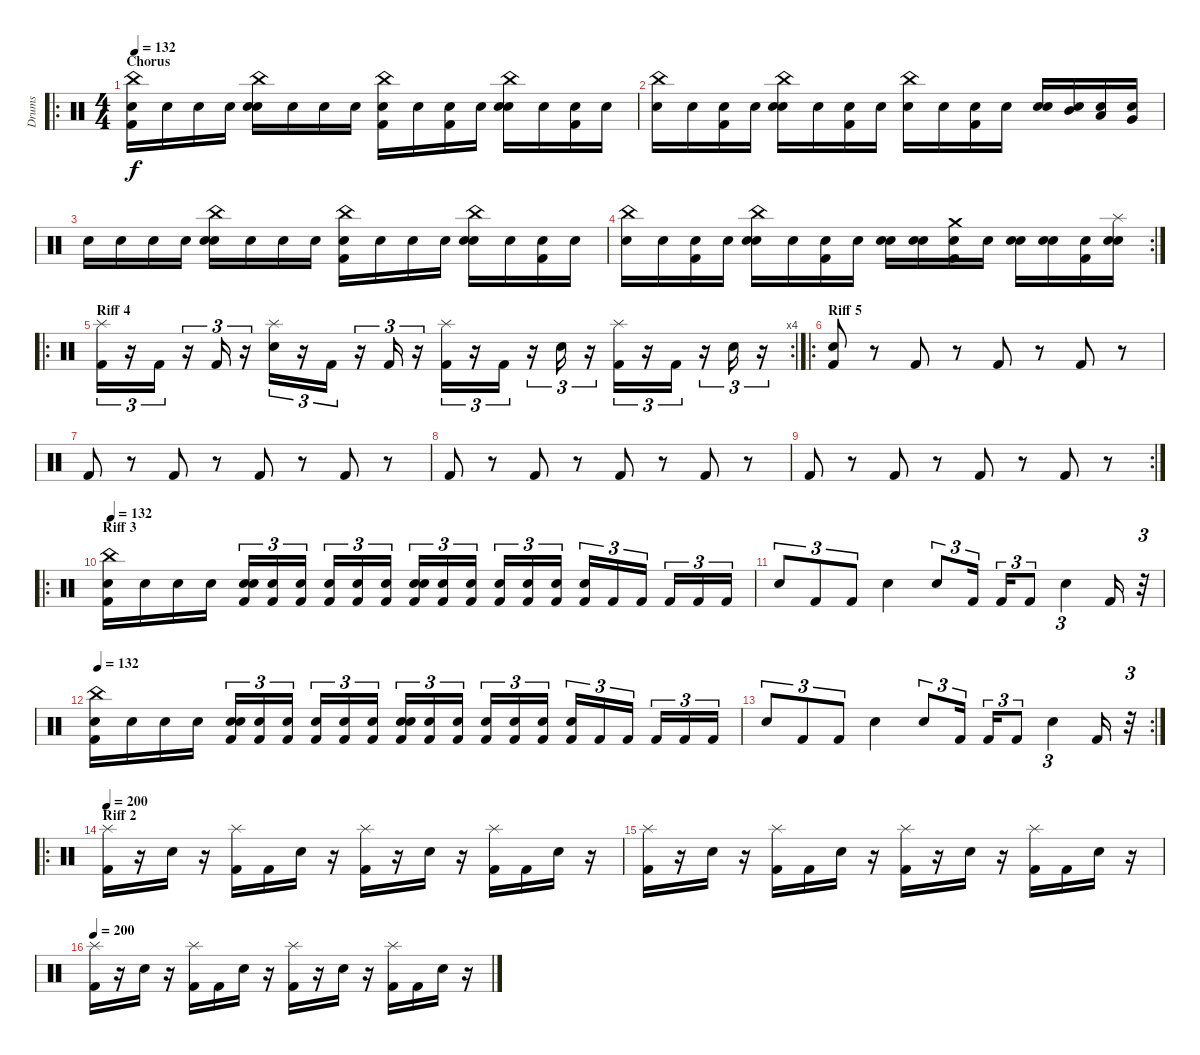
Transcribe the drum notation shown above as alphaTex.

\track ("Drums" "Drums") {instrument percussion}
\staff {score}
\articulation defaults
\ro
\ts (4 4)
\section ("" "Chorus")
\tempo 132
\clef neutral
\ks c
("Snare (hit)" "Kick (hit) 2" "China (hit)").16{dy f} "Snare (hit)".16 "Snare (hit)".16 "Snare (hit)".16 ("Snare (hit)" "Snare (hit) 2" "China (hit)").16 "Snare (hit)".16 "Snare (hit)".16 "Snare (hit)".16 ("Snare (hit)" "Kick (hit) 2" "China (hit)").16 "Snare (hit)".16 ("Snare (hit)" "Kick (hit) 2").16 "Snare (hit)".16 ("Snare (hit)" "Snare (hit) 2" "China (hit)").16 "Snare (hit)".16 ("Snare (hit)" "Kick (hit) 2").16 "Snare (hit)".16 |
("Snare (hit)" "China (hit)").16 "Snare (hit)".16 ("Snare (hit)" "Kick (hit) 2").16 "Snare (hit)".16 ("Snare (hit)" "Snare (hit) 2" "China (hit)").16 "Snare (hit)".16 ("Snare (hit)" "Kick (hit) 2").16 "Snare (hit)".16 ("Snare (hit)" "China (hit)").16 "Snare (hit)".16 ("Snare (hit)" "Kick (hit) 2").16 "Snare (hit)".16 ("Snare (hit)" "Snare (hit) 2").16 ("Snare (hit)" "Mid Tom (hit)").16 ("Snare (hit)" "Low Tom (hit)").16 ("Snare (hit)" "Very Low Tom (hit)").16 |
"Snare (hit)".16 "Snare (hit)".16 "Snare (hit)".16 "Snare (hit)".16 ("Snare (hit)" "Snare (hit) 2" "China (hit)").16 "Snare (hit)".16 "Snare (hit)".16 "Snare (hit)".16 ("Snare (hit)" "Kick (hit) 2" "China (hit)").16 "Snare (hit)".16 "Snare (hit)".16 "Snare (hit)".16 ("Snare (hit)" "Snare (hit) 2" "China (hit)").16 "Snare (hit)".16 ("Snare (hit)" "Kick (hit) 2").16 "Snare (hit)".16 |
\rc 2
("Snare (hit)" "China (hit)").16 "Snare (hit)".16 ("Snare (hit)" "Kick (hit) 2").16 "Snare (hit)".16 ("Snare (hit)" "Snare (hit) 2" "China (hit)").16 "Snare (hit)".16 ("Snare (hit)" "Kick (hit) 2").16 "Snare (hit)".16 ("Snare (hit)" "Snare (hit) 2").16 ("Snare (hit)" "Snare (hit) 2").16 ("Snare (hit)" "Kick (hit) 2" "Crash medium (hit)").16 "Snare (hit)".16 ("Snare (hit)" "Snare (hit) 2").16 ("Snare (hit)" "Snare (hit) 2").16 ("Snare (hit)" "Kick (hit) 2").16 ("Snare (hit)" "Snare (hit) 2" "Splash (hit)").16 |
\ro
\rc 4
\section ("" "Riff 4")
("Kick (hit) 2" "Splash (hit)").16{tu (3 2)} r.16{tu (3 2)} "Kick (hit) 2".16{tu (3 2)} r.16{tu (3 2)} "Kick (hit) 2".16{tu (3 2)} r.16{tu (3 2)} ("Snare (hit) 2" "Splash (hit)").16{tu (3 2)} r.16{tu (3 2)} "Kick (hit) 2".16{tu (3 2)} r.16{tu (3 2)} "Kick (hit) 2".16{tu (3 2)} r.16{tu (3 2)} ("Kick (hit) 2" "Splash (hit)").16{tu (3 2)} r.16{tu (3 2)} "Kick (hit) 2".16{tu (3 2)} r.16{tu (3 2)} "Snare (hit) 2".16{tu (3 2)} r.16{tu (3 2)} ("Kick (hit) 2" "Splash (hit)").16{tu (3 2)} r.16{tu (3 2)} "Kick (hit) 2".16{tu (3 2)} r.16{tu (3 2)} "Snare (hit) 2".16{tu (3 2)} r.16{tu (3 2)} |
\ro
\section ("" "Riff 5")
("Kick (hit) 2" "Snare (hit)").8 r.8 "Kick (hit) 2".8 r.8 "Kick (hit) 2".8 r.8 "Kick (hit) 2".8 r.8 |
"Kick (hit) 2".8 r.8 "Kick (hit) 2".8 r.8 "Kick (hit) 2".8 r.8 "Kick (hit) 2".8 r.8 |
"Kick (hit) 2".8 r.8 "Kick (hit) 2".8 r.8 "Kick (hit) 2".8 r.8 "Kick (hit) 2".8 r.8 |
\rc 2 "Kick (hit) 2".8
r.8 "Kick (hit) 2".8 r.8 "Kick (hit) 2".8 r.8 "Kick (hit) 2".8 r.8 |
\ro
\section ("" "Riff 3")
\tempo 132
("Snare (hit)" "Kick (hit) 2" "China (hit)").16 "Snare (hit)".16 "Snare (hit)".16 "Snare (hit)".16 ("Snare (hit)" "Kick (hit) 2" "Snare (hit) 2").16{tu (3 2)} ("Snare (hit)" "Kick (hit) 2").16{tu (3 2)} ("Snare (hit)" "Kick (hit) 2").16{tu (3 2)} ("Snare (hit)" "Kick (hit) 2").16{tu (3 2)} ("Snare (hit)" "Kick (hit) 2").16{tu (3 2)} ("Snare (hit)" "Kick (hit) 2").16{tu (3 2)} ("Snare (hit)" "Kick (hit) 2" "Snare (hit) 2").16{tu (3 2)} ("Snare (hit)" "Kick (hit) 2").16{tu (3 2)} ("Snare (hit)" "Kick (hit) 2").16{tu (3 2)} ("Snare (hit)" "Kick (hit) 2").16{tu (3 2)} ("Snare (hit)" "Kick (hit) 2").16{tu (3 2)} ("Snare (hit)" "Kick (hit) 2").16{tu (3 2)} ("Kick (hit) 2" "Snare (hit) 2").16{tu (3 2)} "Kick (hit) 2".16{tu (3 2)} "Kick (hit) 2".16{tu (3 2)} "Kick (hit) 2".16{tu (3 2)} "Kick (hit) 2".16{tu (3 2)} "Kick (hit) 2".16{tu (3 2)} |
"Snare (hit) 2".8{tu (3 2)} "Kick (hit) 2".8{tu (3 2)} "Kick (hit) 2".8{tu (3 2)} "Snare (hit) 2".4 "Snare (hit) 2".8{tu (3 2)} "Kick (hit) 2".16{tu (3 2)} "Kick (hit) 2".16{tu (3 2)} "Kick (hit) 2".8{tu (3 2)} "Snare (hit) 2".4{tu (3 2)} "Kick (hit) 2".16 r.32{tu (3 2)} |
\tempo 132
("Snare (hit)" "Kick (hit) 2" "China (hit)").16 "Snare (hit)".16 "Snare (hit)".16 "Snare (hit)".16 ("Snare (hit)" "Kick (hit) 2" "Snare (hit) 2").16{tu (3 2)} ("Snare (hit)" "Kick (hit) 2").16{tu (3 2)} ("Snare (hit)" "Kick (hit) 2").16{tu (3 2)} ("Snare (hit)" "Kick (hit) 2").16{tu (3 2)} ("Snare (hit)" "Kick (hit) 2").16{tu (3 2)} ("Snare (hit)" "Kick (hit) 2").16{tu (3 2)} ("Snare (hit)" "Kick (hit) 2" "Snare (hit) 2").16{tu (3 2)} ("Snare (hit)" "Kick (hit) 2").16{tu (3 2)} ("Snare (hit)" "Kick (hit) 2").16{tu (3 2)} ("Snare (hit)" "Kick (hit) 2").16{tu (3 2)} ("Snare (hit)" "Kick (hit) 2").16{tu (3 2)} ("Snare (hit)" "Kick (hit) 2").16{tu (3 2)} ("Kick (hit) 2" "Snare (hit) 2").16{tu (3 2)} "Kick (hit) 2".16{tu (3 2)} "Kick (hit) 2".16{tu (3 2)} "Kick (hit) 2".16{tu (3 2)} "Kick (hit) 2".16{tu (3 2)} "Kick (hit) 2".16{tu (3 2)} |
\rc 2 "Snare (hit) 2".8{tu (3 2)} "Kick (hit) 2".8{tu (3 2)} "Kick (hit) 2".8{tu (3 2)} "Snare (hit) 2".4 "Snare (hit) 2".8{tu (3 2)} "Kick (hit) 2".16{tu (3 2)} "Kick (hit) 2".16{tu (3 2)} "Kick (hit) 2".8{tu (3 2)} "Snare (hit) 2".4{tu (3 2)} "Kick (hit) 2".16
r.32{tu (3 2)} |
\ro
\section ("" "Riff 2")
\tempo 200
("Kick (hit) 2" "Splash (hit)").16 r.16 "Snare (hit) 2".16 r.16 ("Kick (hit) 2" "Splash (hit)").16 "Kick (hit) 2".16 "Snare (hit) 2".16 r.16 ("Kick (hit) 2" "Splash (hit)").16 r.16 "Snare (hit) 2".16 r.16 ("Kick (hit) 2" "Splash (hit)").16 "Kick (hit) 2".16 "Snare (hit) 2".16 r.16 |
("Kick (hit) 2" "Splash (hit)").16 r.16 "Snare (hit) 2".16 r.16 ("Kick (hit) 2" "Splash (hit)").16 "Kick (hit) 2".16 "Snare (hit) 2".16 r.16 ("Kick (hit) 2" "Splash (hit)").16 r.16 "Snare (hit) 2".16 r.16 ("Kick (hit) 2" "Splash (hit)").16 "Kick (hit) 2".16 "Snare (hit) 2".16 r.16 |
\tempo 200
("Kick (hit) 2" "Splash (hit)").16 r.16 "Snare (hit) 2".16 r.16 ("Kick (hit) 2" "Splash (hit)").16 "Kick (hit) 2".16 "Snare (hit) 2".16 r.16 ("Kick (hit) 2" "Splash (hit)").16 r.16 "Snare (hit) 2".16 r.16 ("Kick (hit) 2" "Splash (hit)").16 "Kick (hit) 2".16 "Snare (hit) 2".16 r.16
